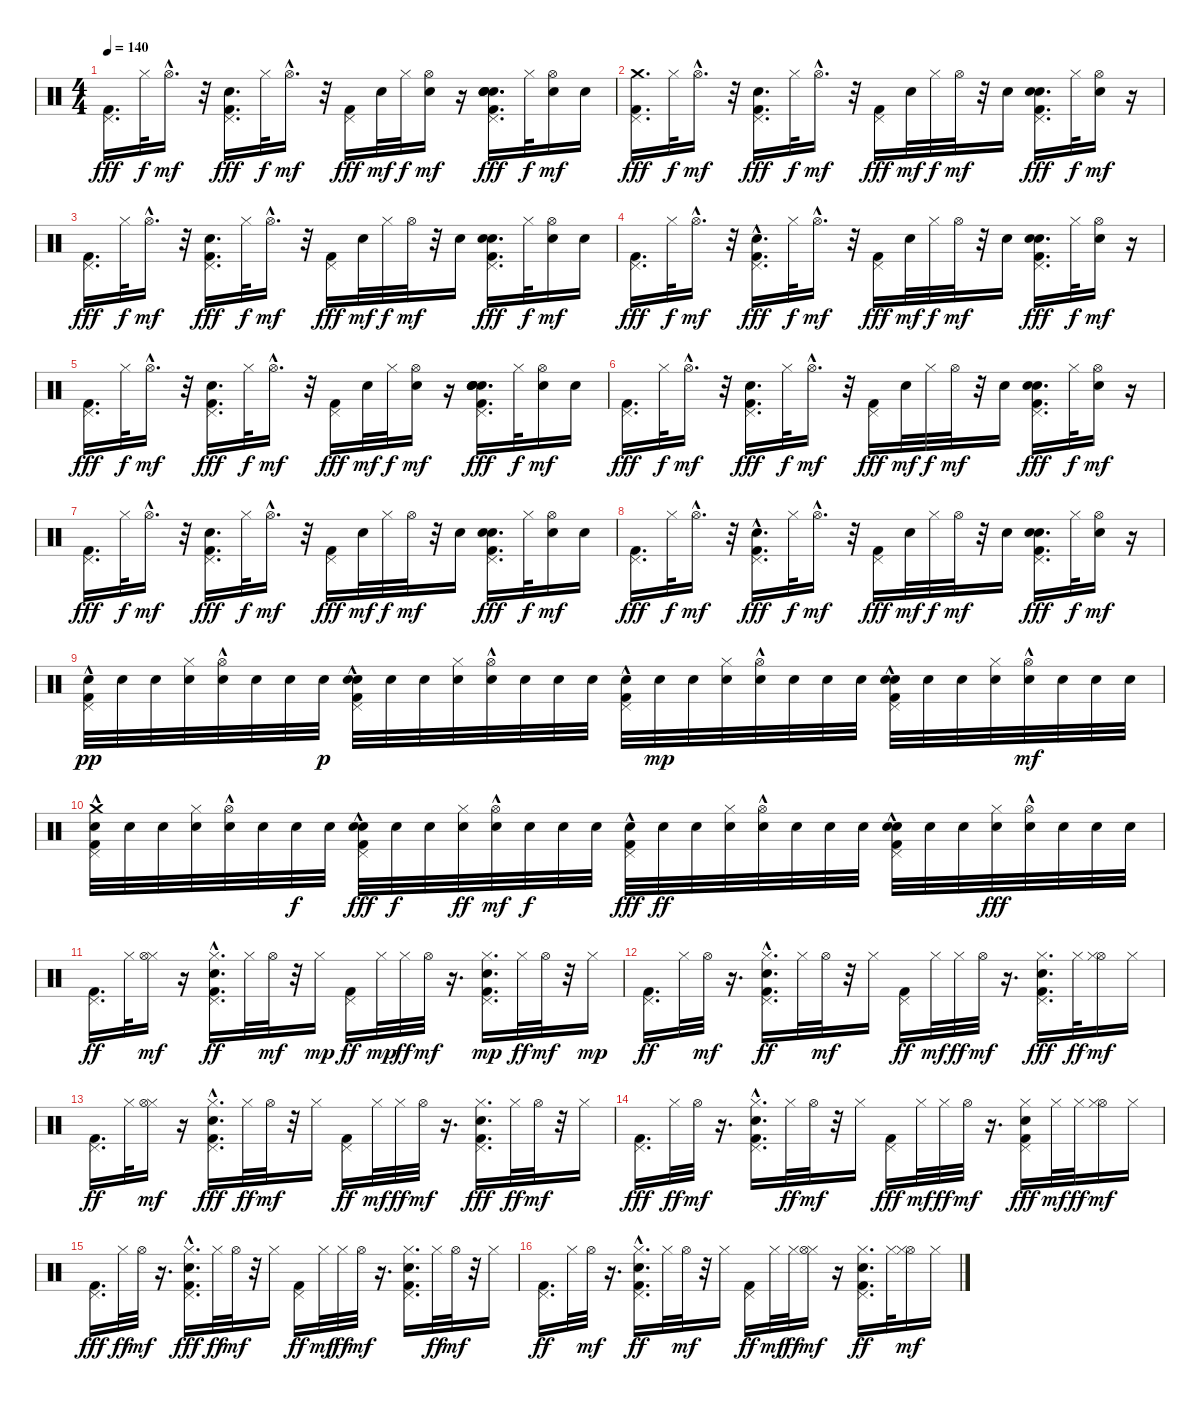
\track "" {instrument percussion}
\staff {score}
\articulation defaults
\ts (4 4)
\tempo 140
\clef neutral
\ks c
("Pedal Hi-Hat (hit)" "Kick (hit) 2").16{d dy fff} "Hi-Hat (closed)".32{dy f} "Hi-Hat (open)"{hac}.16{d dy mf} r.32 ("Pedal Hi-Hat (hit)" "Snare (hit) 2" "Kick (hit) 2").16{d dy fff} "Hi-Hat (closed)".32{dy f} "Hi-Hat (open)"{hac}.16{d dy mf} r.32 ("Pedal Hi-Hat (hit)" "Kick (hit) 2").16{dy fff} "Electric Snare (hit)".32{dy mf} "Hi-Hat (closed)".32{dy f} ("Electric Snare (hit)" "Hi-Hat (open)").16{dy mf} r.16 ("Pedal Hi-Hat (hit)" "Hand Clap (hit)" "Snare (hit) 2" "Hand Clap (hit)" "Electric Snare (hit)" "Kick (hit) 2").16{d dy fff} "Hi-Hat (closed)".32{dy f} ("Electric Snare (hit)" "Hi-Hat (open)").16{dy mf} "Electric Snare (hit)".16 |
("Crash medium (hit)" "Pedal Hi-Hat (hit)" "Kick (hit) 2").16{d dy fff} "Hi-Hat (closed)".32{dy f} "Hi-Hat (open)"{hac}.16{d dy mf} r.32 ("Pedal Hi-Hat (hit)" "Snare (hit) 2" "Kick (hit) 2").16{d dy fff} "Hi-Hat (closed)".32{dy f} "Hi-Hat (open)"{hac}.16{d dy mf} r.32 ("Pedal Hi-Hat (hit)" "Kick (hit) 2").16{dy fff} "Electric Snare (hit)".32{dy mf} "Hi-Hat (closed)".32{dy f} "Hi-Hat (open)".32{dy mf} r.32 "Electric Snare (hit)".16 ("Hand Clap (hit)" "Snare (hit) 2" "Pedal Hi-Hat (hit)" "Kick (hit) 2").16{d dy fff} "Hi-Hat (closed)".32{dy f} ("Electric Snare (hit)" "Hi-Hat (open)").16{dy mf} r.16 |
("Pedal Hi-Hat (hit)" "Kick (hit) 2").16{d dy fff} "Hi-Hat (closed)".32{dy f} "Hi-Hat (open)"{hac}.16{d dy mf} r.32 ("Pedal Hi-Hat (hit)" "Snare (hit) 2" "Kick (hit) 2").16{d dy fff} "Hi-Hat (closed)".32{dy f} "Hi-Hat (open)"{hac}.16{d dy mf} r.32 ("Pedal Hi-Hat (hit)" "Kick (hit) 2").16{dy fff} "Electric Snare (hit)".32{dy mf} "Hi-Hat (closed)".32{dy f} "Hi-Hat (open)".32{dy mf} r.32 "Electric Snare (hit)".16 ("Pedal Hi-Hat (hit)" "Hand Clap (hit)" "Snare (hit) 2" "Kick (hit) 2").16{d dy fff} "Hi-Hat (closed)".32{dy f} ("Electric Snare (hit)" "Hi-Hat (open)").16{dy mf} "Electric Snare (hit)".16 |
("Pedal Hi-Hat (hit)" "Kick (hit) 2").16{d dy fff} "Hi-Hat (closed)".32{dy f} "Hi-Hat (open)"{hac}.16{d dy mf} r.32 ("Pedal Hi-Hat (hit)" "Snare (hit) 2" "Kick (hit) 2"{hac}).16{d dy fff} "Hi-Hat (closed)".32{dy f} "Hi-Hat (open)"{hac}.16{d dy mf} r.32 ("Pedal Hi-Hat (hit)" "Kick (hit) 2").16{dy fff} "Electric Snare (hit)".32{dy mf} "Hi-Hat (closed)".32{dy f} "Hi-Hat (open)".32{dy mf} r.32 "Electric Snare (hit)".16 ("Pedal Hi-Hat (hit)" "Snare (hit) 2" "Hand Clap (hit)" "Kick (hit) 2").16{d dy fff} "Hi-Hat (closed)".32{dy f} ("Electric Snare (hit)" "Hi-Hat (open)").16{dy mf} r.16 |
("Pedal Hi-Hat (hit)" "Kick (hit) 2").16{d dy fff} "Hi-Hat (closed)".32{dy f} "Hi-Hat (open)"{hac}.16{d dy mf} r.32 ("Pedal Hi-Hat (hit)" "Snare (hit) 2" "Kick (hit) 2").16{d dy fff} "Hi-Hat (closed)".32{dy f} "Hi-Hat (open)"{hac}.16{d dy mf} r.32 ("Pedal Hi-Hat (hit)" "Kick (hit) 2").16{dy fff} "Electric Snare (hit)".32{dy mf} "Hi-Hat (closed)".32{dy f} ("Electric Snare (hit)" "Hi-Hat (open)").16{dy mf} r.16 ("Pedal Hi-Hat (hit)" "Hand Clap (hit)" "Hand Clap (hit)" "Snare (hit) 2" "Electric Snare (hit)" "Kick (hit) 2").16{d dy fff} "Hi-Hat (closed)".32{dy f} ("Electric Snare (hit)" "Hi-Hat (open)").16{dy mf} "Electric Snare (hit)".16 |
("Pedal Hi-Hat (hit)" "Kick (hit) 2").16{d dy fff} "Hi-Hat (closed)".32{dy f} "Hi-Hat (open)"{hac}.16{d dy mf} r.32 ("Pedal Hi-Hat (hit)" "Snare (hit) 2" "Kick (hit) 2").16{d dy fff} "Hi-Hat (closed)".32{dy f} "Hi-Hat (open)"{hac}.16{d dy mf} r.32 ("Pedal Hi-Hat (hit)" "Kick (hit) 2").16{dy fff} "Electric Snare (hit)".32{dy mf} "Hi-Hat (closed)".32{dy f} "Hi-Hat (open)".32{dy mf} r.32 "Electric Snare (hit)".16 ("Snare (hit) 2" "Pedal Hi-Hat (hit)" "Hand Clap (hit)" "Kick (hit) 2").16{d dy fff} "Hi-Hat (closed)".32{dy f} ("Electric Snare (hit)" "Hi-Hat (open)").16{dy mf} r.16 |
("Pedal Hi-Hat (hit)" "Kick (hit) 2").16{d dy fff} "Hi-Hat (closed)".32{dy f} "Hi-Hat (open)"{hac}.16{d dy mf} r.32 ("Pedal Hi-Hat (hit)" "Snare (hit) 2" "Kick (hit) 2").16{d dy fff} "Hi-Hat (closed)".32{dy f} "Hi-Hat (open)"{hac}.16{d dy mf} r.32 ("Pedal Hi-Hat (hit)" "Kick (hit) 2").16{dy fff} "Electric Snare (hit)".32{dy mf} "Hi-Hat (closed)".32{dy f} "Hi-Hat (open)".32{dy mf} r.32 "Electric Snare (hit)".16 ("Hand Clap (hit)" "Pedal Hi-Hat (hit)" "Snare (hit) 2" "Kick (hit) 2").16{d dy fff} "Hi-Hat (closed)".32{dy f} ("Electric Snare (hit)" "Hi-Hat (open)").16{dy mf} "Electric Snare (hit)".16 |
("Pedal Hi-Hat (hit)" "Kick (hit) 2").16{d dy fff} "Hi-Hat (closed)".32{dy f} "Hi-Hat (open)"{hac}.16{d dy mf} r.32 ("Pedal Hi-Hat (hit)" "Snare (hit) 2" "Kick (hit) 2"{hac}).16{d dy fff} "Hi-Hat (closed)".32{dy f} "Hi-Hat (open)"{hac}.16{d dy mf} r.32 ("Pedal Hi-Hat (hit)" "Kick (hit) 2").16{dy fff} "Electric Snare (hit)".32{dy mf} "Hi-Hat (closed)".32{dy f} "Hi-Hat (open)".32{dy mf} r.32 "Electric Snare (hit)".16 ("Pedal Hi-Hat (hit)" "Hand Clap (hit)" "Snare (hit) 2" "Kick (hit) 2").16{d dy fff} "Hi-Hat (closed)".32{dy f} ("Electric Snare (hit)" "Hi-Hat (open)").16{dy mf} r.16 |
("Kick (hit) 2" "Pedal Hi-Hat (hit)"{hac} "Electric Snare (hit)").32{dy pp} "Electric Snare (hit)".32 "Electric Snare (hit)".32 ("Hi-Hat (closed)" "Electric Snare (hit)").32 ("Hi-Hat (open)"{hac} "Electric Snare (hit)").32 "Electric Snare (hit)".32 "Electric Snare (hit)".32 "Electric Snare (hit)".32{dy p} ("Kick (hit) 2" "Pedal Hi-Hat (hit)"{hac} "Hand Clap (hit)"{hac} "Electric Snare (hit)").32 "Electric Snare (hit)".32 "Electric Snare (hit)".32 ("Hi-Hat (closed)" "Electric Snare (hit)").32 ("Hi-Hat (open)"{hac} "Electric Snare (hit)").32 "Electric Snare (hit)".32 "Electric Snare (hit)".32 "Electric Snare (hit)".32 ("Pedal Hi-Hat (hit)"{hac} "Kick (hit) 2"{hac} "Electric Snare (hit)").32 "Electric Snare (hit)".32{dy mp} "Electric Snare (hit)".32 ("Hi-Hat (closed)" "Electric Snare (hit)").32 ("Hi-Hat (open)"{hac} "Electric Snare (hit)").32 "Electric Snare (hit)".32 "Electric Snare (hit)".32 "Electric Snare (hit)".32 ("Kick (hit) 2"{hac} "Hand Clap (hit)" "Pedal Hi-Hat (hit)"{hac} "Electric Snare (hit)").32 "Electric Snare (hit)".32 "Electric Snare (hit)".32 ("Hi-Hat (closed)" "Electric Snare (hit)").32 ("Hi-Hat (open)"{hac} "Electric Snare (hit)").32{dy mf} "Electric Snare (hit)".32 "Electric Snare (hit)".32 "Electric Snare (hit)".32 |
("Crash medium (hit)" "Pedal Hi-Hat (hit)"{hac} "Kick (hit) 2" "Electric Snare (hit)").32 "Electric Snare (hit)".32 "Electric Snare (hit)".32 ("Hi-Hat (closed)" "Electric Snare (hit)").32 ("Hi-Hat (open)"{hac} "Electric Snare (hit)").32 "Electric Snare (hit)".32 "Electric Snare (hit)".32{dy f} "Electric Snare (hit)".32 ("Hand Clap (hit)"{hac} "Kick (hit) 2" "Pedal Hi-Hat (hit)"{hac} "Electric Snare (hit)").32{dy fff} "Electric Snare (hit)".32{dy f} "Electric Snare (hit)".32 ("Hi-Hat (closed)" "Electric Snare (hit)").32{dy ff} ("Hi-Hat (open)"{hac} "Electric Snare (hit)").32{dy mf} "Electric Snare (hit)".32{dy f} "Electric Snare (hit)".32 "Electric Snare (hit)".32 ("Kick (hit) 2"{hac} "Pedal Hi-Hat (hit)"{hac} "Electric Snare (hit)").32{dy fff} "Electric Snare (hit)".32{dy ff} "Electric Snare (hit)".32 ("Hi-Hat (closed)" "Electric Snare (hit)").32 ("Hi-Hat (open)"{hac} "Electric Snare (hit)").32 "Electric Snare (hit)".32 "Electric Snare (hit)".32 "Electric Snare (hit)".32 ("Kick (hit) 2"{hac} "Pedal Hi-Hat (hit)"{hac} "Hand Clap (hit)" "Electric Snare (hit)").32 "Electric Snare (hit)".32 "Electric Snare (hit)".32 ("Hi-Hat (closed)" "Electric Snare (hit)").32{dy fff} ("Hi-Hat (open)"{hac} "Electric Snare (hit)").32 "Electric Snare (hit)".32 "Electric Snare (hit)".32 "Electric Snare (hit)".32 |
("Kick (hit) 2" "Pedal Hi-Hat (hit)").16{d dy ff} "Hi-Hat (closed)".32 ("Hi-Hat (closed)" "Hi-Hat (open)").16{dy mf} r.16 ("Kick (hit) 2" "Hi-Hat (closed)" "Hand Clap (hit)"{hac} "Pedal Hi-Hat (hit)").16{d dy ff} "Hi-Hat (closed)".32 "Hi-Hat (open)".32{dy mf} r.32 "Hi-Hat (closed)".16{dy mp} ("Kick (hit) 2" "Pedal Hi-Hat (hit)").16{dy ff} "Hi-Hat (closed)".32{dy mp} "Hi-Hat (closed)".32{dy ff} "Hi-Hat (open)".32{dy mf} r.16{d} ("Kick (hit) 2" "Pedal Hi-Hat (hit)" "Hand Clap (hit)" "Hi-Hat (closed)").16{d dy mp} "Hi-Hat (closed)".32{dy ff} "Hi-Hat (open)".32{dy mf} r.32 "Hi-Hat (closed)".16{dy mp} |
("Kick (hit) 2" "Pedal Hi-Hat (hit)").16{d dy ff} "Hi-Hat (closed)".32 "Hi-Hat (open)".32{dy mf} r.16{d} ("Hi-Hat (closed)" "Hand Clap (hit)"{hac} "Kick (hit) 2" "Pedal Hi-Hat (hit)").16{d dy ff} "Hi-Hat (closed)".32 "Hi-Hat (open)".32{dy mf} r.32 "Hi-Hat (closed)".16 ("Kick (hit) 2" "Pedal Hi-Hat (hit)").16{dy ff} "Hi-Hat (closed)".32{dy mf} "Hi-Hat (closed)".32{dy ff} "Hi-Hat (open)".32{dy mf} r.16{d} ("Hand Clap (hit)" "Hi-Hat (closed)" "Pedal Hi-Hat (hit)" "Kick (hit) 2").16{d dy fff} "Hi-Hat (closed)".32{dy ff} ("Hi-Hat (open)" "Hi-Hat (closed)").16{dy mf} "Hi-Hat (closed)".16 |
("Kick (hit) 2" "Pedal Hi-Hat (hit)").16{d dy ff} "Hi-Hat (closed)".32 ("Hi-Hat (closed)" "Hi-Hat (open)").16{dy mf} r.16 ("Pedal Hi-Hat (hit)" "Hand Clap (hit)"{hac} "Hi-Hat (closed)" "Kick (hit) 2").16{d dy fff} "Hi-Hat (closed)".32{dy ff} "Hi-Hat (open)".32{dy mf} r.32 "Hi-Hat (closed)".16 ("Kick (hit) 2" "Pedal Hi-Hat (hit)").16{dy ff} "Hi-Hat (closed)".32{dy mf} "Hi-Hat (closed)".32{dy ff} "Hi-Hat (open)".32{dy mf} r.16{d} ("Hi-Hat (closed)" "Pedal Hi-Hat (hit)" "Hand Clap (hit)" "Kick (hit) 2").16{d dy fff} "Hi-Hat (closed)".32{dy ff} "Hi-Hat (open)".32{dy mf} r.32 "Hi-Hat (closed)".16 |
("Pedal Hi-Hat (hit)" "Kick (hit) 2").16{d dy fff} "Hi-Hat (closed)".32{dy ff} "Hi-Hat (open)".32{dy mf} r.16{d} ("Pedal Hi-Hat (hit)" "Kick (hit) 2" "Hi-Hat (closed)" "Hand Clap (hit)"{hac}).16{d} "Hi-Hat (closed)".32{dy ff} "Hi-Hat (open)".32{dy mf} r.32 "Hi-Hat (closed)".16 ("Pedal Hi-Hat (hit)" "Kick (hit) 2").16{dy fff} "Hi-Hat (closed)".32{dy mf} "Hi-Hat (closed)".32{dy ff} "Hi-Hat (open)".32{dy mf} r.16{d} ("Hi-Hat (closed)" "Pedal Hi-Hat (hit)" "Kick (hit) 2" "Hand Clap (hit)").16{dy fff} "Hi-Hat (closed)".32{dy mf} "Hi-Hat (closed)".32{dy ff} ("Hi-Hat (open)" "Hi-Hat (closed)").16{dy mf} "Hi-Hat (closed)".16 |
("Pedal Hi-Hat (hit)" "Kick (hit) 2").16{d dy fff} "Hi-Hat (closed)".32{dy ff} "Hi-Hat (open)".32{dy mf} r.16{d} ("Hand Clap (hit)"{hac} "Pedal Hi-Hat (hit)" "Hi-Hat (closed)" "Kick (hit) 2").16{d dy fff} "Hi-Hat (closed)".32{dy ff} "Hi-Hat (open)".32{dy mf} r.32 "Hi-Hat (closed)".16 ("Kick (hit) 2" "Pedal Hi-Hat (hit)").16{dy ff} "Hi-Hat (closed)".32{dy mf} "Hi-Hat (closed)".32{dy ff} "Hi-Hat (open)".32{dy mf} r.16{d} ("Pedal Hi-Hat (hit)" "Kick (hit) 2" "Hand Clap (hit)" "Hi-Hat (closed)").16{d} "Hi-Hat (closed)".32{dy ff} "Hi-Hat (open)".32{dy mf} r.32 "Hi-Hat (closed)".16 |
("Kick (hit) 2" "Pedal Hi-Hat (hit)").16{d dy ff} "Hi-Hat (closed)".32 "Hi-Hat (open)".32{dy mf} r.16{d} ("Kick (hit) 2" "Hi-Hat (closed)" "Pedal Hi-Hat (hit)" "Hand Clap (hit)"{hac}).16{d dy ff} "Hi-Hat (closed)".32 "Hi-Hat (open)".32{dy mf} r.32 "Hi-Hat (closed)".16 ("Kick (hit) 2" "Pedal Hi-Hat (hit)").16{dy ff} "Hi-Hat (closed)".32{dy mf} "Hi-Hat (closed)".32{dy ff} ("Hi-Hat (closed)" "Hi-Hat (open)").16{dy mf} r.16 ("Hi-Hat (closed)" "Kick (hit) 2" "Pedal Hi-Hat (hit)" "Hand Clap (hit)").16{d dy ff} "Hi-Hat (closed)".32 ("Hi-Hat (open)" "Hi-Hat (closed)").16{dy mf} "Hi-Hat (closed)".16
